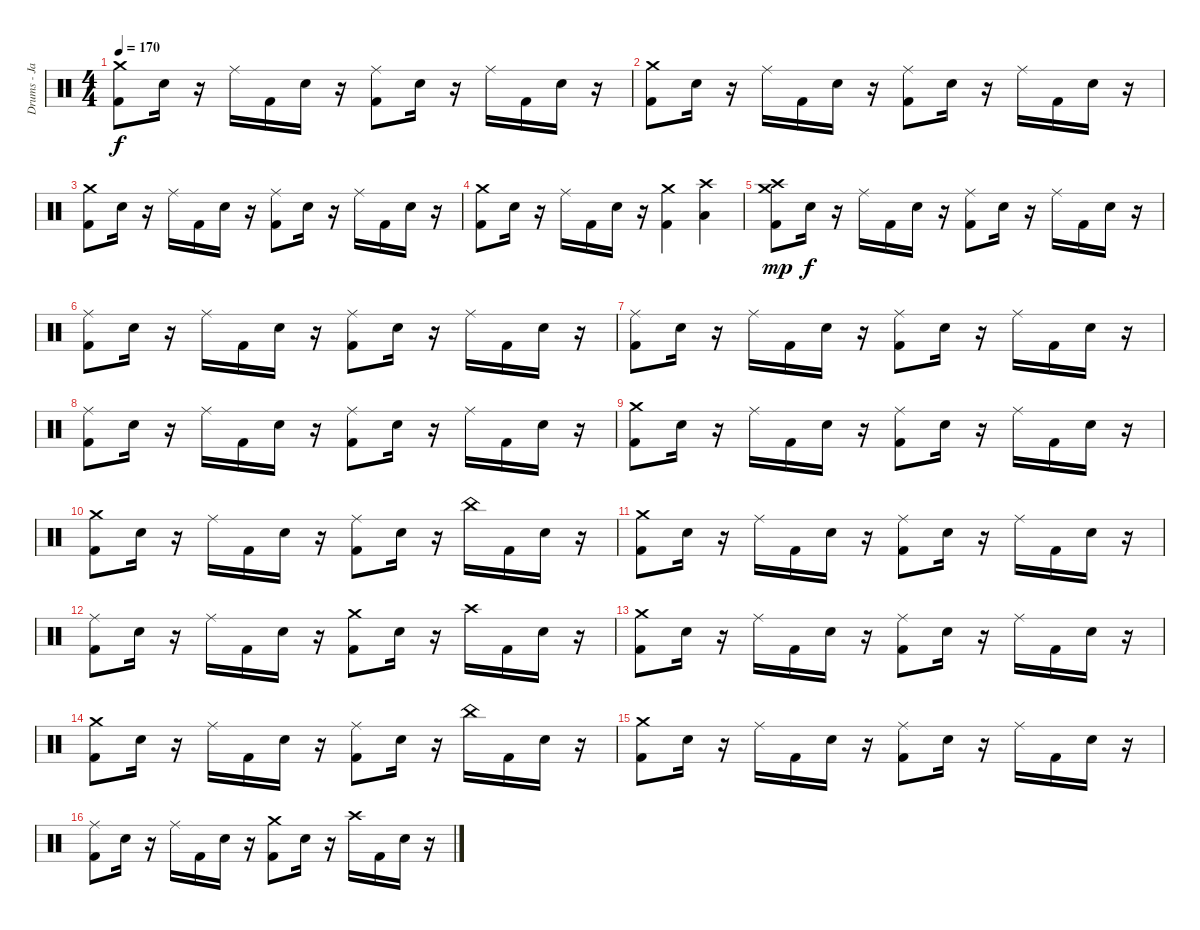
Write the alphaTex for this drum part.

\track ("Drums - Jasper Blazer" "Drums - Ja") {instrument percussion}
\staff {score}
\articulation defaults
\ts (4 4)
\tempo 170
\clef neutral
\ks c
("Kick (hit) 2" "Crash medium (hit)").8{dy f} "Electric Snare (hit)".16 r.16 "Ride (middle)".16 "Kick (hit) 2".16 "Electric Snare (hit)".16 r.16 ("Kick (hit) 2" "Ride (middle)").8 "Electric Snare (hit)".16 r.16 "Ride (middle)".16 "Kick (hit) 2".16 "Electric Snare (hit)".16 r.16 |
("Kick (hit) 2" "Crash medium (hit)").8 "Electric Snare (hit)".16 r.16 "Ride (middle)".16 "Kick (hit) 2".16 "Electric Snare (hit)".16 r.16 ("Kick (hit) 2" "Ride (middle)").8 "Electric Snare (hit)".16 r.16 "Ride (middle)".16 "Kick (hit) 2".16 "Electric Snare (hit)".16 r.16 |
("Kick (hit) 2" "Crash medium (hit)").8 "Electric Snare (hit)".16 r.16 "Ride (middle)".16 "Kick (hit) 2".16 "Electric Snare (hit)".16 r.16 ("Kick (hit) 2" "Ride (middle)").8 "Electric Snare (hit)".16 r.16 "Ride (middle)".16 "Kick (hit) 2".16 "Electric Snare (hit)".16 r.16 |
("Kick (hit) 2" "Crash medium (hit)").8 "Electric Snare (hit)".16 r.16 "Ride (middle)".16 "Kick (hit) 2".16 "Electric Snare (hit)".16 r.16 ("Kick (hit) 2" "Crash medium (hit)").4 ("Crash high (hit)" "Low Tom (hit)").4 |
("Crash high (hit)" "Kick (hit) 2" "Crash medium (hit)").8{dy mp} "Electric Snare (hit)".16{dy f} r.16 "Ride (middle)".16 "Kick (hit) 2".16 "Electric Snare (hit)".16 r.16 ("Kick (hit) 2" "Ride (middle)").8 "Electric Snare (hit)".16 r.16 "Ride (middle)".16 "Kick (hit) 2".16 "Electric Snare (hit)".16 r.16 |
("Kick (hit) 2" "Ride (middle)").8 "Electric Snare (hit)".16 r.16 "Ride (middle)".16 "Kick (hit) 2".16 "Electric Snare (hit)".16 r.16 ("Kick (hit) 2" "Ride (middle)").8 "Electric Snare (hit)".16 r.16 "Ride (middle)".16 "Kick (hit) 2".16 "Electric Snare (hit)".16 r.16 |
("Kick (hit) 2" "Ride (middle)").8 "Electric Snare (hit)".16 r.16 "Ride (middle)".16 "Kick (hit) 2".16 "Electric Snare (hit)".16 r.16 ("Kick (hit) 2" "Ride (middle)").8 "Electric Snare (hit)".16 r.16 "Ride (middle)".16 "Kick (hit) 2".16 "Electric Snare (hit)".16 r.16 |
("Kick (hit) 2" "Ride (middle)").8 "Electric Snare (hit)".16 r.16 "Ride (middle)".16 "Kick (hit) 2".16 "Electric Snare (hit)".16 r.16 ("Kick (hit) 2" "Ride (middle)").8 "Electric Snare (hit)".16 r.16 "Ride (middle)".16 "Kick (hit) 2".16 "Electric Snare (hit)".16 r.16 |
("Kick (hit) 2" "Crash medium (hit)").8 "Electric Snare (hit)".16 r.16 "Ride (middle)".16 "Kick (hit) 2".16 "Electric Snare (hit)".16 r.16 ("Kick (hit) 2" "Ride (middle)").8 "Electric Snare (hit)".16 r.16 "Ride (middle)".16 "Kick (hit) 2".16 "Electric Snare (hit)".16 r.16 |
("Kick (hit) 2" "Crash medium (hit)").8 "Electric Snare (hit)".16 r.16 "Ride (middle)".16 "Kick (hit) 2".16 "Electric Snare (hit)".16 r.16 ("Kick (hit) 2" "Ride (middle)").8 "Electric Snare (hit)".16 r.16 "China (hit)".16 "Kick (hit) 2".16 "Electric Snare (hit)".16 r.16 |
("Kick (hit) 2" "Crash medium (hit)").8 "Electric Snare (hit)".16 r.16 "Ride (middle)".16 "Kick (hit) 2".16 "Electric Snare (hit)".16 r.16 ("Kick (hit) 2" "Ride (middle)").8 "Electric Snare (hit)".16 r.16 "Ride (middle)".16 "Kick (hit) 2".16 "Electric Snare (hit)".16 r.16 |
("Kick (hit) 2" "Ride (middle)").8 "Electric Snare (hit)".16 r.16 "Ride (middle)".16 "Kick (hit) 2".16 "Electric Snare (hit)".16 r.16 ("Kick (hit) 2" "Crash medium (hit)").8 "Electric Snare (hit)".16 r.16 "Crash high (hit)".16 "Kick (hit) 2".16 "Electric Snare (hit)".16 r.16 |
("Kick (hit) 2" "Crash medium (hit)").8 "Electric Snare (hit)".16 r.16 "Ride (middle)".16 "Kick (hit) 2".16 "Electric Snare (hit)".16 r.16 ("Kick (hit) 2" "Ride (middle)").8 "Electric Snare (hit)".16 r.16 "Ride (middle)".16 "Kick (hit) 2".16 "Electric Snare (hit)".16 r.16 |
("Kick (hit) 2" "Crash medium (hit)").8 "Electric Snare (hit)".16 r.16 "Ride (middle)".16 "Kick (hit) 2".16 "Electric Snare (hit)".16 r.16 ("Kick (hit) 2" "Ride (middle)").8 "Electric Snare (hit)".16 r.16 "China (hit)".16 "Kick (hit) 2".16 "Electric Snare (hit)".16 r.16 |
("Kick (hit) 2" "Crash medium (hit)").8 "Electric Snare (hit)".16 r.16 "Ride (middle)".16 "Kick (hit) 2".16 "Electric Snare (hit)".16 r.16 ("Kick (hit) 2" "Ride (middle)").8 "Electric Snare (hit)".16 r.16 "Ride (middle)".16 "Kick (hit) 2".16 "Electric Snare (hit)".16 r.16 |
("Kick (hit) 2" "Ride (middle)").8 "Electric Snare (hit)".16 r.16 "Ride (middle)".16 "Kick (hit) 2".16 "Electric Snare (hit)".16 r.16 ("Kick (hit) 2" "Crash medium (hit)").8 "Electric Snare (hit)".16 r.16 "Crash high (hit)".16 "Kick (hit) 2".16 "Electric Snare (hit)".16 r.16
